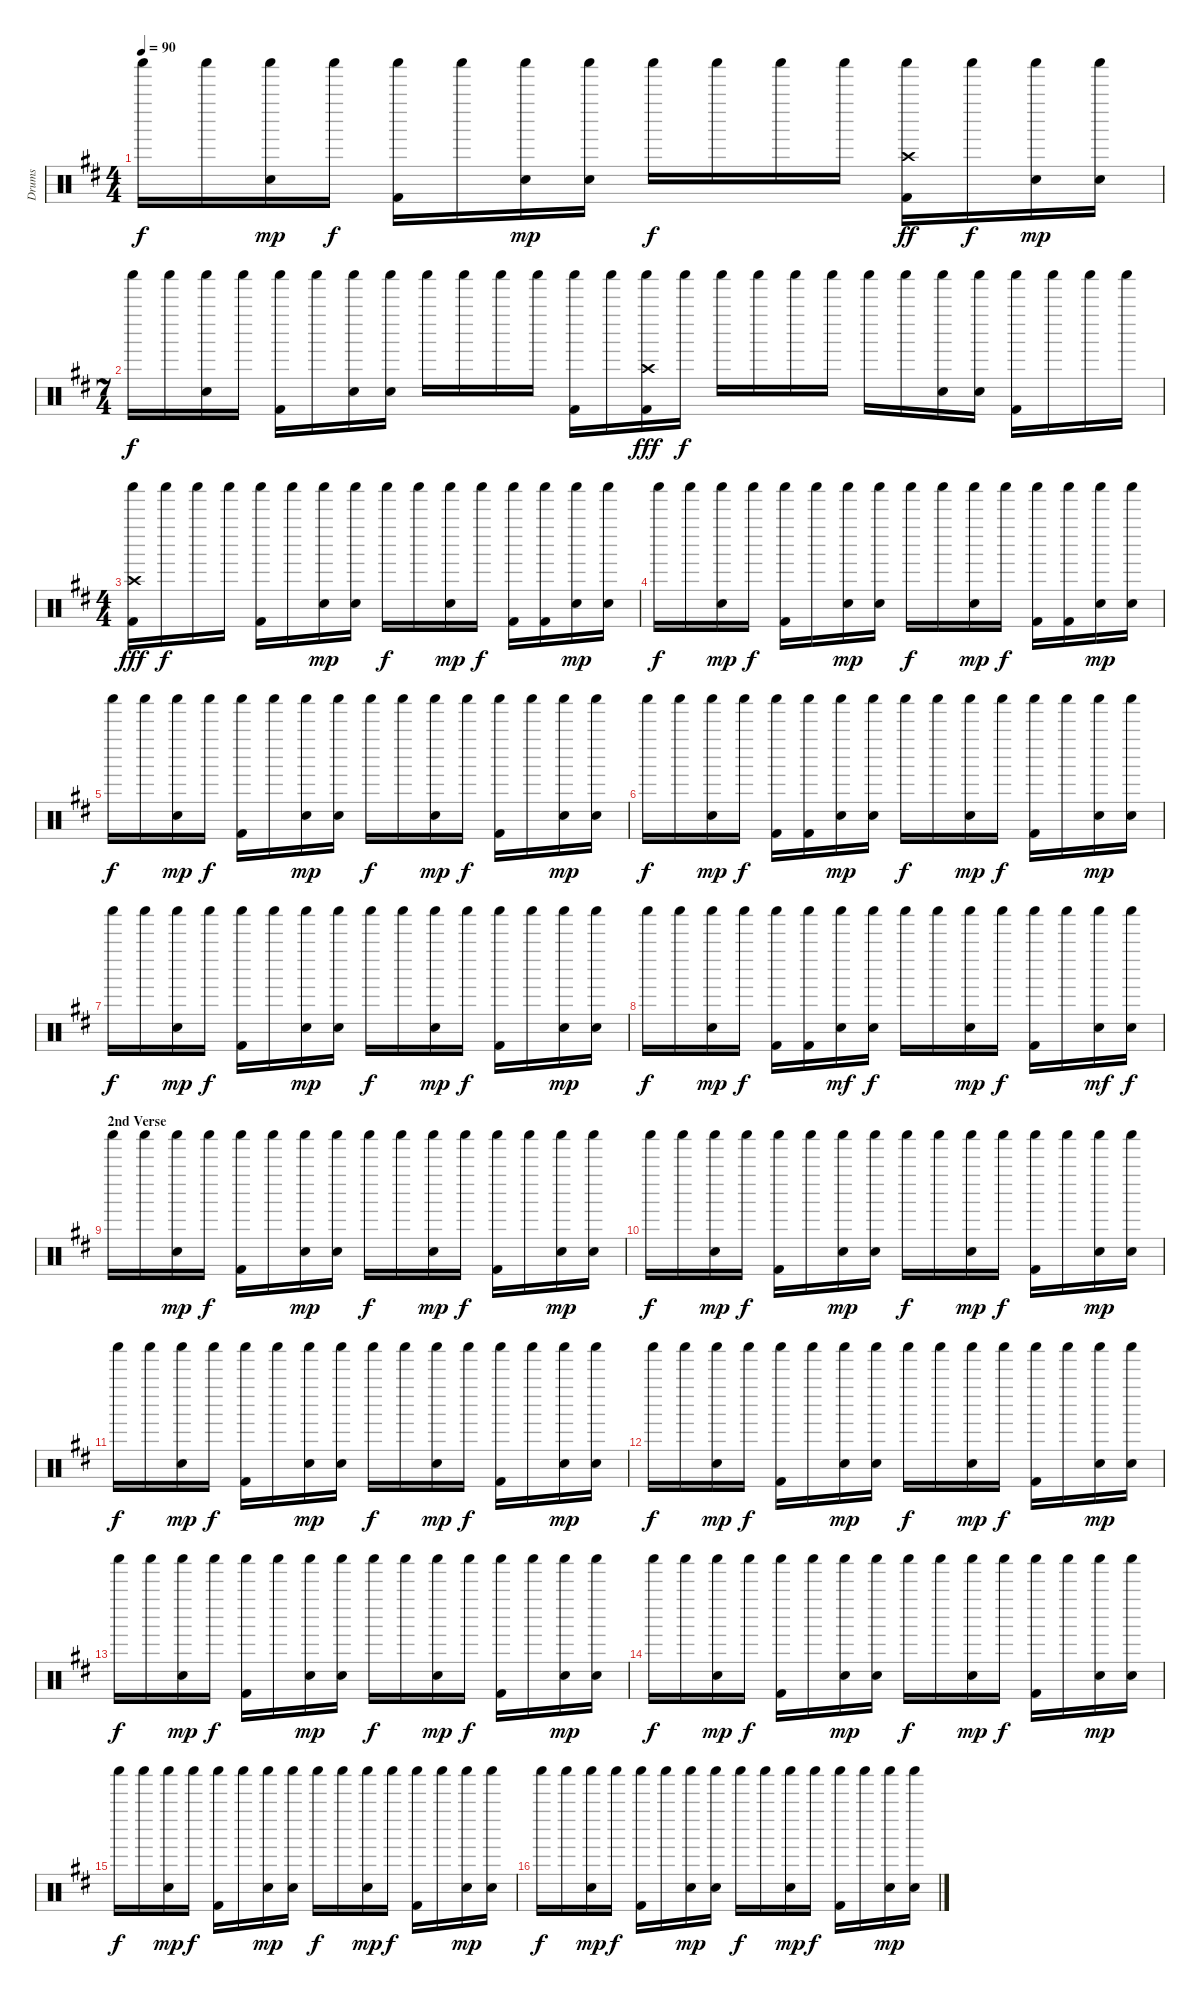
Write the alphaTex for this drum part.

\track ("Drums" "Drums") {instrument percussion}
\staff {score}
\articulation defaults
\ts (4 4)
\tempo 90
\clef neutral
\ks bminor "Shaker (hit)".16{dy f} "Shaker (hit)".16
("Shaker (hit)" "Electric Snare (hit)").16{dy mp} "Shaker (hit)".16{dy f} ("Shaker (hit)" "Kick (hit) 2").16 "Shaker (hit)".16 ("Shaker (hit)" "Electric Snare (hit)").16{dy mp} ("Shaker (hit)" "Electric Snare (hit)").16 "Shaker (hit)".16{dy f} "Shaker (hit)".16 "Shaker (hit)".16 "Shaker (hit)".16 ("Shaker (hit)" "Crash high (hit)" "Kick (hit) 2").16{dy ff} "Shaker (hit)".16{dy f} ("Shaker (hit)" "Electric Snare (hit)").16{dy mp} ("Shaker (hit)" "Electric Snare (hit)").16 |
\ts (7 4)
"Shaker (hit)".16{dy f} "Shaker (hit)".16 ("Shaker (hit)" "Electric Snare (hit)").16 "Shaker (hit)".16 ("Shaker (hit)" "Kick (hit) 2").16 "Shaker (hit)".16 ("Shaker (hit)" "Electric Snare (hit)").16 ("Shaker (hit)" "Electric Snare (hit)").16 "Shaker (hit)".16 "Shaker (hit)".16 "Shaker (hit)".16 "Shaker (hit)".16 ("Shaker (hit)" "Kick (hit) 2").16 "Shaker (hit)".16 ("Shaker (hit)" "Crash high (hit)" "Kick (hit) 2").16{dy fff} "Shaker (hit)".16{dy f} "Shaker (hit)".16 "Shaker (hit)".16 "Shaker (hit)".16 "Shaker (hit)".16 "Shaker (hit)".16 "Shaker (hit)".16 ("Shaker (hit)" "Electric Snare (hit)").16 ("Shaker (hit)" "Electric Snare (hit)").16 ("Shaker (hit)" "Kick (hit) 2").16 "Shaker (hit)".16 "Shaker (hit)".16 "Shaker (hit)".16 |
\ts (4 4)
("Shaker (hit)" "Crash high (hit)" "Kick (hit) 2").16{dy fff} "Shaker (hit)".16{dy f} "Shaker (hit)".16 "Shaker (hit)".16 ("Shaker (hit)" "Kick (hit) 2").16 "Shaker (hit)".16 ("Shaker (hit)" "Electric Snare (hit)").16{dy mp} ("Shaker (hit)" "Electric Snare (hit)").16 "Shaker (hit)".16{dy f} "Shaker (hit)".16 ("Shaker (hit)" "Electric Snare (hit)").16{dy mp} "Shaker (hit)".16{dy f} ("Shaker (hit)" "Kick (hit) 2").16 ("Shaker (hit)" "Kick (hit) 2").16 ("Shaker (hit)" "Electric Snare (hit)").16{dy mp} ("Shaker (hit)" "Electric Snare (hit)").16 |
"Shaker (hit)".16{dy f} "Shaker (hit)".16 ("Shaker (hit)" "Electric Snare (hit)").16{dy mp} "Shaker (hit)".16{dy f} ("Shaker (hit)" "Kick (hit) 2").16 "Shaker (hit)".16 ("Shaker (hit)" "Electric Snare (hit)").16{dy mp} ("Shaker (hit)" "Electric Snare (hit)").16 "Shaker (hit)".16{dy f} "Shaker (hit)".16 ("Shaker (hit)" "Electric Snare (hit)").16{dy mp} "Shaker (hit)".16{dy f} ("Shaker (hit)" "Kick (hit) 2").16 ("Shaker (hit)" "Kick (hit) 2").16 ("Shaker (hit)" "Electric Snare (hit)").16{dy mp} ("Shaker (hit)" "Electric Snare (hit)").16 |
"Shaker (hit)".16{dy f} "Shaker (hit)".16 ("Shaker (hit)" "Electric Snare (hit)").16{dy mp} "Shaker (hit)".16{dy f} ("Shaker (hit)" "Kick (hit) 2").16 "Shaker (hit)".16 ("Shaker (hit)" "Electric Snare (hit)").16{dy mp} ("Shaker (hit)" "Electric Snare (hit)").16 "Shaker (hit)".16{dy f} "Shaker (hit)".16 ("Shaker (hit)" "Electric Snare (hit)").16{dy mp} "Shaker (hit)".16{dy f} ("Shaker (hit)" "Kick (hit) 2").16 "Shaker (hit)".16 ("Shaker (hit)" "Electric Snare (hit)").16{dy mp} ("Shaker (hit)" "Electric Snare (hit)").16 |
"Shaker (hit)".16{dy f} "Shaker (hit)".16 ("Shaker (hit)" "Electric Snare (hit)").16{dy mp} "Shaker (hit)".16{dy f} ("Shaker (hit)" "Kick (hit) 2").16 ("Shaker (hit)" "Kick (hit) 2").16 ("Shaker (hit)" "Electric Snare (hit)").16{dy mp} ("Shaker (hit)" "Electric Snare (hit)").16 "Shaker (hit)".16{dy f} "Shaker (hit)".16 ("Shaker (hit)" "Electric Snare (hit)").16{dy mp} "Shaker (hit)".16{dy f} ("Shaker (hit)" "Kick (hit) 2").16 "Shaker (hit)".16 ("Shaker (hit)" "Electric Snare (hit)").16{dy mp} ("Shaker (hit)" "Electric Snare (hit)").16 |
"Shaker (hit)".16{dy f} "Shaker (hit)".16 ("Shaker (hit)" "Electric Snare (hit)").16{dy mp} "Shaker (hit)".16{dy f} ("Shaker (hit)" "Kick (hit) 2").16 "Shaker (hit)".16 ("Shaker (hit)" "Electric Snare (hit)").16{dy mp} ("Shaker (hit)" "Electric Snare (hit)").16 "Shaker (hit)".16{dy f} "Shaker (hit)".16 ("Shaker (hit)" "Electric Snare (hit)").16{dy mp} "Shaker (hit)".16{dy f} ("Shaker (hit)" "Kick (hit) 2").16 "Shaker (hit)".16 ("Shaker (hit)" "Electric Snare (hit)").16{dy mp} ("Shaker (hit)" "Electric Snare (hit)").16 |
"Shaker (hit)".16{dy f} "Shaker (hit)".16 ("Shaker (hit)" "Electric Snare (hit)").16{dy mp} "Shaker (hit)".16{dy f} ("Shaker (hit)" "Kick (hit) 2").16 ("Shaker (hit)" "Kick (hit) 2").16 ("Shaker (hit)" "Electric Snare (hit)").16{dy mf} ("Shaker (hit)" "Electric Snare (hit)").16{dy f} "Shaker (hit)".16 "Shaker (hit)".16 ("Shaker (hit)" "Electric Snare (hit)").16{dy mp} "Shaker (hit)".16{dy f} ("Shaker (hit)" "Kick (hit) 2").16 "Shaker (hit)".16 ("Shaker (hit)" "Electric Snare (hit)").16{dy mf} ("Shaker (hit)" "Electric Snare (hit)").16{dy f} |
\section ("" "2nd Verse")
"Shaker (hit)".16 "Shaker (hit)".16 ("Shaker (hit)" "Electric Snare (hit)").16{dy mp} "Shaker (hit)".16{dy f} ("Shaker (hit)" "Kick (hit) 2").16 "Shaker (hit)".16 ("Shaker (hit)" "Electric Snare (hit)").16{dy mp} ("Shaker (hit)" "Electric Snare (hit)").16 "Shaker (hit)".16{dy f} "Shaker (hit)".16 ("Shaker (hit)" "Electric Snare (hit)").16{dy mp} "Shaker (hit)".16{dy f} ("Shaker (hit)" "Kick (hit) 2").16 "Shaker (hit)".16 ("Shaker (hit)" "Electric Snare (hit)").16{dy mp} ("Shaker (hit)" "Electric Snare (hit)").16 |
"Shaker (hit)".16{dy f} "Shaker (hit)".16 ("Shaker (hit)" "Electric Snare (hit)").16{dy mp} "Shaker (hit)".16{dy f} ("Shaker (hit)" "Kick (hit) 2").16 "Shaker (hit)".16 ("Shaker (hit)" "Electric Snare (hit)").16{dy mp} ("Shaker (hit)" "Electric Snare (hit)").16 "Shaker (hit)".16{dy f} "Shaker (hit)".16 ("Shaker (hit)" "Electric Snare (hit)").16{dy mp} "Shaker (hit)".16{dy f} ("Shaker (hit)" "Kick (hit) 2").16 "Shaker (hit)".16 ("Shaker (hit)" "Electric Snare (hit)").16{dy mp} ("Shaker (hit)" "Electric Snare (hit)").16 |
"Shaker (hit)".16{dy f} "Shaker (hit)".16 ("Shaker (hit)" "Electric Snare (hit)").16{dy mp} "Shaker (hit)".16{dy f} ("Shaker (hit)" "Kick (hit) 2").16 "Shaker (hit)".16 ("Shaker (hit)" "Electric Snare (hit)").16{dy mp} ("Shaker (hit)" "Electric Snare (hit)").16 "Shaker (hit)".16{dy f} "Shaker (hit)".16 ("Shaker (hit)" "Electric Snare (hit)").16{dy mp} "Shaker (hit)".16{dy f} ("Shaker (hit)" "Kick (hit) 2").16 "Shaker (hit)".16 ("Shaker (hit)" "Electric Snare (hit)").16{dy mp} ("Shaker (hit)" "Electric Snare (hit)").16 |
"Shaker (hit)".16{dy f} "Shaker (hit)".16 ("Shaker (hit)" "Electric Snare (hit)").16{dy mp} "Shaker (hit)".16{dy f} ("Shaker (hit)" "Kick (hit) 2").16 "Shaker (hit)".16 ("Shaker (hit)" "Electric Snare (hit)").16{dy mp} ("Shaker (hit)" "Electric Snare (hit)").16 "Shaker (hit)".16{dy f} "Shaker (hit)".16 ("Shaker (hit)" "Electric Snare (hit)").16{dy mp} "Shaker (hit)".16{dy f} ("Shaker (hit)" "Kick (hit) 2").16 "Shaker (hit)".16 ("Shaker (hit)" "Electric Snare (hit)").16{dy mp} ("Shaker (hit)" "Electric Snare (hit)").16 |
"Shaker (hit)".16{dy f} "Shaker (hit)".16 ("Shaker (hit)" "Electric Snare (hit)").16{dy mp} "Shaker (hit)".16{dy f} ("Shaker (hit)" "Kick (hit) 2").16 "Shaker (hit)".16 ("Shaker (hit)" "Electric Snare (hit)").16{dy mp} ("Shaker (hit)" "Electric Snare (hit)").16 "Shaker (hit)".16{dy f} "Shaker (hit)".16 ("Shaker (hit)" "Electric Snare (hit)").16{dy mp} "Shaker (hit)".16{dy f} ("Shaker (hit)" "Kick (hit) 2").16 "Shaker (hit)".16 ("Shaker (hit)" "Electric Snare (hit)").16{dy mp} ("Shaker (hit)" "Electric Snare (hit)").16 |
"Shaker (hit)".16{dy f} "Shaker (hit)".16 ("Shaker (hit)" "Electric Snare (hit)").16{dy mp} "Shaker (hit)".16{dy f} ("Shaker (hit)" "Kick (hit) 2").16 "Shaker (hit)".16 ("Shaker (hit)" "Electric Snare (hit)").16{dy mp} ("Shaker (hit)" "Electric Snare (hit)").16 "Shaker (hit)".16{dy f} "Shaker (hit)".16 ("Shaker (hit)" "Electric Snare (hit)").16{dy mp} "Shaker (hit)".16{dy f} ("Shaker (hit)" "Kick (hit) 2").16 "Shaker (hit)".16 ("Shaker (hit)" "Electric Snare (hit)").16{dy mp} ("Shaker (hit)" "Electric Snare (hit)").16 |
"Shaker (hit)".16{dy f} "Shaker (hit)".16 ("Shaker (hit)" "Electric Snare (hit)").16{dy mp} "Shaker (hit)".16{dy f} ("Shaker (hit)" "Kick (hit) 2").16 "Shaker (hit)".16 ("Shaker (hit)" "Electric Snare (hit)").16{dy mp} ("Shaker (hit)" "Electric Snare (hit)").16 "Shaker (hit)".16{dy f} "Shaker (hit)".16 ("Shaker (hit)" "Electric Snare (hit)").16{dy mp} "Shaker (hit)".16{dy f} ("Shaker (hit)" "Kick (hit) 2").16 "Shaker (hit)".16 ("Shaker (hit)" "Electric Snare (hit)").16{dy mp} ("Shaker (hit)" "Electric Snare (hit)").16 |
"Shaker (hit)".16{dy f} "Shaker (hit)".16 ("Shaker (hit)" "Electric Snare (hit)").16{dy mp} "Shaker (hit)".16{dy f} ("Shaker (hit)" "Kick (hit) 2").16 "Shaker (hit)".16 ("Shaker (hit)" "Electric Snare (hit)").16{dy mp} ("Shaker (hit)" "Electric Snare (hit)").16 "Shaker (hit)".16{dy f} "Shaker (hit)".16 ("Shaker (hit)" "Electric Snare (hit)").16{dy mp} "Shaker (hit)".16{dy f} ("Shaker (hit)" "Kick (hit) 2").16 "Shaker (hit)".16 ("Shaker (hit)" "Electric Snare (hit)").16{dy mp} ("Shaker (hit)" "Electric Snare (hit)").16
